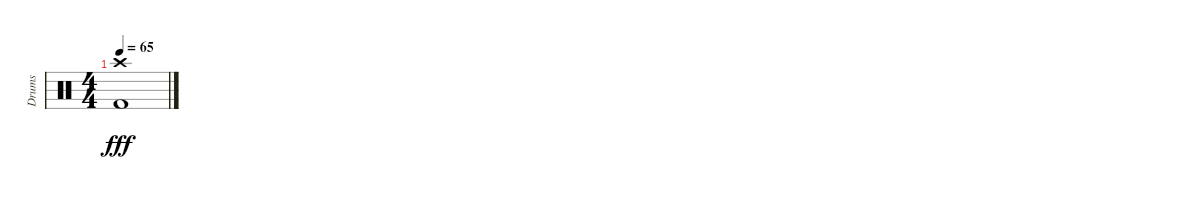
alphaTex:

\track ("Drums" "Drums") {instrument percussion}
\staff {score}
\articulation defaults
\ts (4 4)
\tempo 65
\clef neutral
\ks c
("Crash high (hit)" "Kick (hit) 2").1{dy fff}
